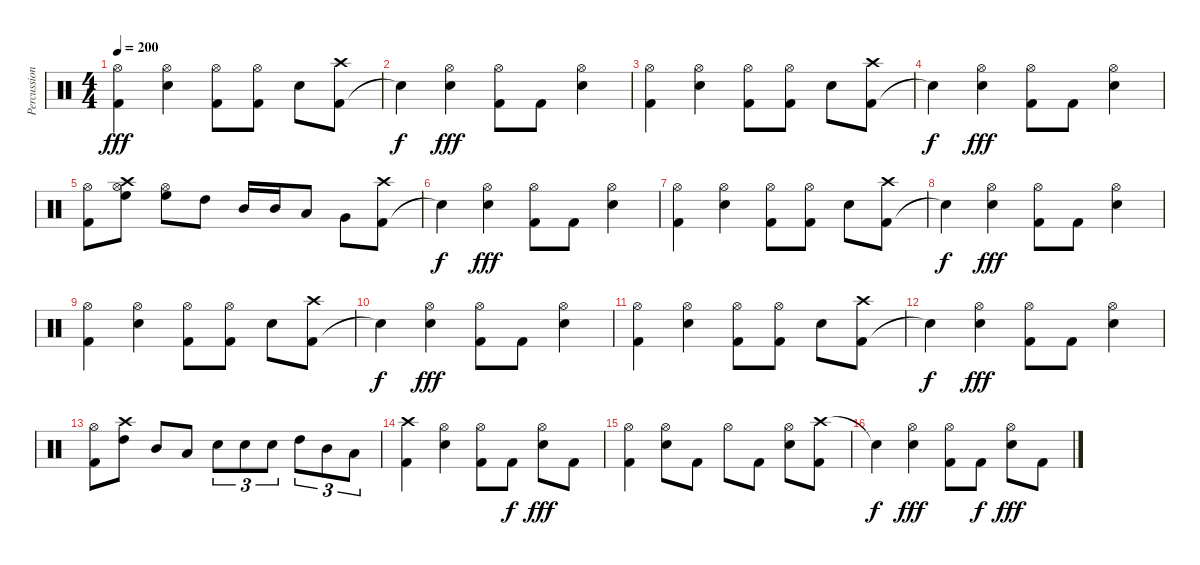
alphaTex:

\track ("Percussion" "Percussion") {instrument percussion}
\staff {score}
\articulation defaults
\ts (4 4)
\tempo 200
\clef neutral
\ks c
("Kick (hit) 2" "Hi-Hat (open)").4{dy fff} ("Snare (hit) 2" "Hi-Hat (open)").4 ("Kick (hit) 2" "Hi-Hat (open)").8 ("Kick (hit) 2" "Hi-Hat (open)").8 "Snare (hit) 2".8 ("Kick (hit) 2" "Crash high (hit)").8 |
"Snare (hit)"{t}.4{dy f} ("Snare (hit) 2" "Hi-Hat (open)").4{dy fff} ("Kick (hit) 2" "Hi-Hat (open)").8 "Kick (hit) 2".8 ("Snare (hit) 2" "Hi-Hat (open)").4 |
("Kick (hit) 2" "Hi-Hat (open)").4 ("Snare (hit) 2" "Hi-Hat (open)").4 ("Kick (hit) 2" "Hi-Hat (open)").8 ("Kick (hit) 2" "Hi-Hat (open)").8 "Snare (hit) 2".8 ("Kick (hit) 2" "Crash high (hit)").8 |
"Snare (hit)"{t}.4{dy f} ("Snare (hit) 2" "Hi-Hat (open)").4{dy fff} ("Kick (hit) 2" "Hi-Hat (open)").8 "Kick (hit) 2".8 ("Snare (hit) 2" "Hi-Hat (open)").4 |
("Kick (hit) 2" "Hi-Hat (open)").8 ("Hi-Hat (open)" "Crash high (hit)" "High Floor Tom (hit)").8 ("Hi-Hat (open)" "High Floor Tom (hit)").8 "High Tom (hit)".8 "Mid Tom (hit)".16 "Mid Tom (hit)".16 "Low Tom (hit)".8 "Very Low Tom (hit)".8 ("Kick (hit) 2" "Crash high (hit)").8 |
"Snare (hit)"{t}.4{dy f} ("Snare (hit) 2" "Hi-Hat (open)").4{dy fff} ("Kick (hit) 2" "Hi-Hat (open)").8 "Kick (hit) 2".8 ("Snare (hit) 2" "Hi-Hat (open)").4 |
("Kick (hit) 2" "Hi-Hat (open)").4 ("Snare (hit) 2" "Hi-Hat (open)").4 ("Kick (hit) 2" "Hi-Hat (open)").8 ("Kick (hit) 2" "Hi-Hat (open)").8 "Snare (hit) 2".8 ("Kick (hit) 2" "Crash high (hit)").8 |
"Snare (hit)"{t}.4{dy f} ("Snare (hit) 2" "Hi-Hat (open)").4{dy fff} ("Kick (hit) 2" "Hi-Hat (open)").8 "Kick (hit) 2".8 ("Snare (hit) 2" "Hi-Hat (open)").4 |
("Kick (hit) 2" "Hi-Hat (open)").4 ("Snare (hit) 2" "Hi-Hat (open)").4 ("Kick (hit) 2" "Hi-Hat (open)").8 ("Kick (hit) 2" "Hi-Hat (open)").8 "Snare (hit) 2".8 ("Kick (hit) 2" "Crash high (hit)").8 |
"Snare (hit)"{t}.4{dy f} ("Snare (hit) 2" "Hi-Hat (open)").4{dy fff} ("Kick (hit) 2" "Hi-Hat (open)").8 "Kick (hit) 2".8 ("Snare (hit) 2" "Hi-Hat (open)").4 |
("Kick (hit) 2" "Hi-Hat (open)").4 ("Snare (hit) 2" "Hi-Hat (open)").4 ("Kick (hit) 2" "Hi-Hat (open)").8 ("Kick (hit) 2" "Hi-Hat (open)").8 "Snare (hit) 2".8 ("Kick (hit) 2" "Crash high (hit)").8 |
"Snare (hit)"{t}.4{dy f} ("Snare (hit) 2" "Hi-Hat (open)").4{dy fff} ("Kick (hit) 2" "Hi-Hat (open)").8 "Kick (hit) 2".8 ("Snare (hit) 2" "Hi-Hat (open)").4 |
("Hi-Hat (open)" "Kick (hit) 2").8 ("High Tom (hit)" "Crash high (hit)").8 "Mid Tom (hit)".8 "Low Tom (hit)".8 "Snare (hit) 2".8{tu (3 2)} "Snare (hit) 2".8{tu (3 2)} "Snare (hit) 2".8{tu (3 2)} "High Tom (hit)".8{tu (3 2)} "Mid Tom (hit)".8{tu (3 2)} "Low Tom (hit)".8{tu (3 2)} |
("Kick (hit) 2" "Crash high (hit)").4 ("Snare (hit) 2" "Hi-Hat (open)").4 ("Kick (hit) 2" "Hi-Hat (open)").8 "Kick (hit) 2".8{dy f} ("Snare (hit) 2" "Hi-Hat (open)").8{dy fff} "Kick (hit) 2".8 |
("Kick (hit) 2" "Hi-Hat (open)").4 ("Snare (hit) 2" "Hi-Hat (open)").8 "Kick (hit) 2".8 "Hi-Hat (open)".8 "Kick (hit) 2".8 ("Snare (hit) 2" "Hi-Hat (open)").8 ("Crash high (hit)" "Kick (hit) 2").8 |
"Snare (hit)"{t}.4{dy f} ("Snare (hit) 2" "Hi-Hat (open)").4{dy fff} ("Kick (hit) 2" "Hi-Hat (open)").8 "Kick (hit) 2".8{dy f} ("Snare (hit) 2" "Hi-Hat (open)").8{dy fff} "Kick (hit) 2".8
